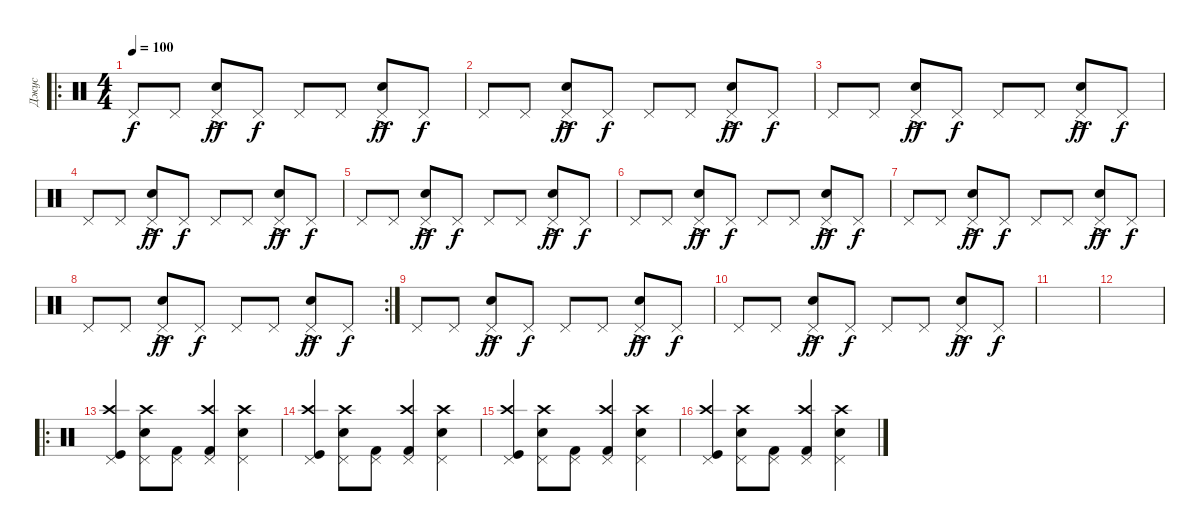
\track ("Джус" "Джус") {instrument percussion}
\staff {score}
\articulation defaults
\ro
\ts (4 4)
\tempo 100
\clef neutral
\ks c "Pedal Hi-Hat (hit)".8{dy f} "Pedal Hi-Hat (hit)".8
("Pedal Hi-Hat (hit)"{ac} "Electric Snare (hit)").8{dy ff} "Pedal Hi-Hat (hit)".8{dy f} "Pedal Hi-Hat (hit)".8 "Pedal Hi-Hat (hit)".8 ("Pedal Hi-Hat (hit)"{ac} "Electric Snare (hit)").8{dy ff} "Pedal Hi-Hat (hit)".8{dy f} |
"Pedal Hi-Hat (hit)".8 "Pedal Hi-Hat (hit)".8 ("Pedal Hi-Hat (hit)"{ac} "Electric Snare (hit)").8{dy ff} "Pedal Hi-Hat (hit)".8{dy f} "Pedal Hi-Hat (hit)".8 "Pedal Hi-Hat (hit)".8 ("Pedal Hi-Hat (hit)"{ac} "Electric Snare (hit)").8{dy ff} "Pedal Hi-Hat (hit)".8{dy f} |
"Pedal Hi-Hat (hit)".8 "Pedal Hi-Hat (hit)".8 ("Pedal Hi-Hat (hit)"{ac} "Electric Snare (hit)").8{dy ff} "Pedal Hi-Hat (hit)".8{dy f} "Pedal Hi-Hat (hit)".8 "Pedal Hi-Hat (hit)".8 ("Pedal Hi-Hat (hit)"{ac} "Electric Snare (hit)").8{dy ff} "Pedal Hi-Hat (hit)".8{dy f} |
"Pedal Hi-Hat (hit)".8 "Pedal Hi-Hat (hit)".8 ("Pedal Hi-Hat (hit)"{ac} "Electric Snare (hit)").8{dy ff} "Pedal Hi-Hat (hit)".8{dy f} "Pedal Hi-Hat (hit)".8 "Pedal Hi-Hat (hit)".8 ("Pedal Hi-Hat (hit)"{ac} "Electric Snare (hit)").8{dy ff} "Pedal Hi-Hat (hit)".8{dy f} |
"Pedal Hi-Hat (hit)".8 "Pedal Hi-Hat (hit)".8 ("Pedal Hi-Hat (hit)"{ac} "Electric Snare (hit)").8{dy ff} "Pedal Hi-Hat (hit)".8{dy f} "Pedal Hi-Hat (hit)".8 "Pedal Hi-Hat (hit)".8 ("Pedal Hi-Hat (hit)"{ac} "Electric Snare (hit)").8{dy ff} "Pedal Hi-Hat (hit)".8{dy f} |
"Pedal Hi-Hat (hit)".8 "Pedal Hi-Hat (hit)".8 ("Pedal Hi-Hat (hit)"{ac} "Electric Snare (hit)").8{dy ff} "Pedal Hi-Hat (hit)".8{dy f} "Pedal Hi-Hat (hit)".8 "Pedal Hi-Hat (hit)".8 ("Pedal Hi-Hat (hit)"{ac} "Electric Snare (hit)").8{dy ff} "Pedal Hi-Hat (hit)".8{dy f} |
"Pedal Hi-Hat (hit)".8 "Pedal Hi-Hat (hit)".8 ("Pedal Hi-Hat (hit)"{ac} "Electric Snare (hit)").8{dy ff} "Pedal Hi-Hat (hit)".8{dy f} "Pedal Hi-Hat (hit)".8 "Pedal Hi-Hat (hit)".8 ("Pedal Hi-Hat (hit)"{ac} "Electric Snare (hit)").8{dy ff} "Pedal Hi-Hat (hit)".8{dy f} |
\rc 2 "Pedal Hi-Hat (hit)".8 "Pedal Hi-Hat (hit)".8
("Pedal Hi-Hat (hit)"{ac} "Electric Snare (hit)").8{dy ff} "Pedal Hi-Hat (hit)".8{dy f} "Pedal Hi-Hat (hit)".8 "Pedal Hi-Hat (hit)".8 ("Pedal Hi-Hat (hit)"{ac} "Electric Snare (hit)").8{dy ff} "Pedal Hi-Hat (hit)".8{dy f} |
"Pedal Hi-Hat (hit)".8 "Pedal Hi-Hat (hit)".8 ("Pedal Hi-Hat (hit)"{ac} "Electric Snare (hit)").8{dy ff} "Pedal Hi-Hat (hit)".8{dy f} "Pedal Hi-Hat (hit)".8 "Pedal Hi-Hat (hit)".8 ("Pedal Hi-Hat (hit)"{ac} "Electric Snare (hit)").8{dy ff} "Pedal Hi-Hat (hit)".8{dy f} |
"Pedal Hi-Hat (hit)".8 "Pedal Hi-Hat (hit)".8 ("Pedal Hi-Hat (hit)"{ac} "Electric Snare (hit)").8{dy ff} "Pedal Hi-Hat (hit)".8{dy f} "Pedal Hi-Hat (hit)".8 "Pedal Hi-Hat (hit)".8 ("Pedal Hi-Hat (hit)"{ac} "Electric Snare (hit)").8{dy ff} "Pedal Hi-Hat (hit)".8{dy f} |
|
|
\ro
("Crash high (hit)" "Pedal Hi-Hat (hit)" "Kick (hit)").4 ("Crash high (hit)" "Pedal Hi-Hat (hit)" "Electric Snare (hit)").8 ("Pedal Hi-Hat (hit)" "Kick (hit) 2").8 ("Crash high (hit)" "Pedal Hi-Hat (hit)" "Kick (hit) 2").4 ("Crash high (hit)" "Pedal Hi-Hat (hit)" "Electric Snare (hit)").4 |
("Crash high (hit)" "Pedal Hi-Hat (hit)" "Kick (hit)").4 ("Crash high (hit)" "Pedal Hi-Hat (hit)" "Electric Snare (hit)").8 ("Pedal Hi-Hat (hit)" "Kick (hit) 2").8 ("Crash high (hit)" "Pedal Hi-Hat (hit)" "Kick (hit) 2").4 ("Crash high (hit)" "Pedal Hi-Hat (hit)" "Electric Snare (hit)").4 |
("Crash high (hit)" "Pedal Hi-Hat (hit)" "Kick (hit)").4 ("Crash high (hit)" "Pedal Hi-Hat (hit)" "Electric Snare (hit)").8 ("Pedal Hi-Hat (hit)" "Kick (hit) 2").8 ("Crash high (hit)" "Pedal Hi-Hat (hit)" "Kick (hit) 2").4 ("Crash high (hit)" "Pedal Hi-Hat (hit)" "Electric Snare (hit)").4 |
("Crash high (hit)" "Pedal Hi-Hat (hit)" "Kick (hit)").4 ("Crash high (hit)" "Pedal Hi-Hat (hit)" "Electric Snare (hit)").8 ("Pedal Hi-Hat (hit)" "Kick (hit) 2").8 ("Crash high (hit)" "Pedal Hi-Hat (hit)" "Kick (hit) 2").4 ("Crash high (hit)" "Pedal Hi-Hat (hit)" "Electric Snare (hit)").4
